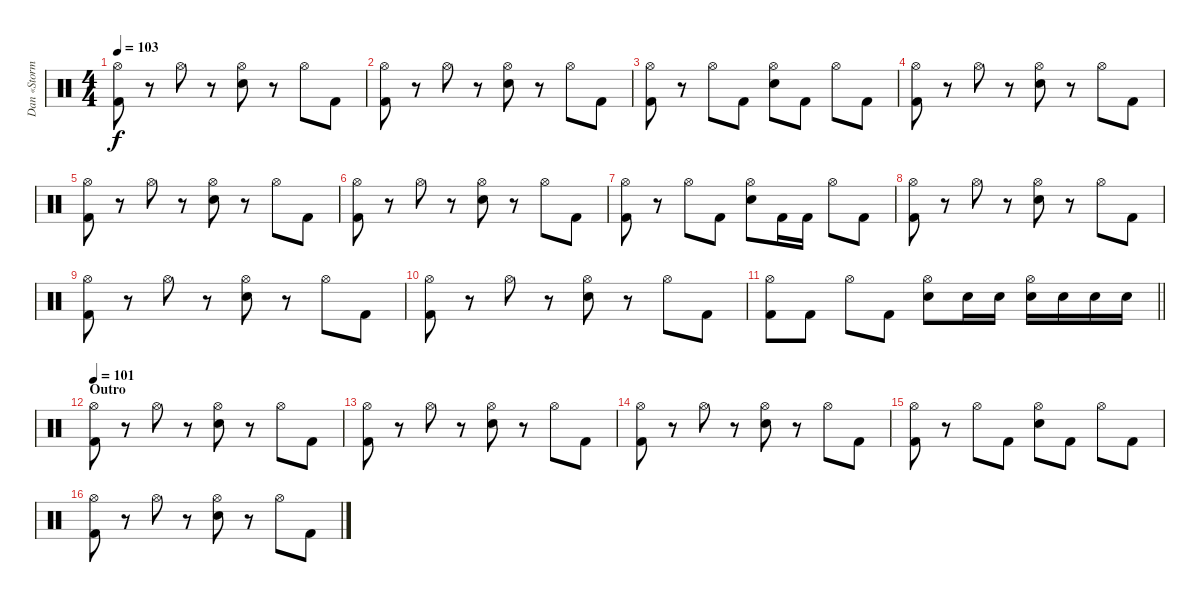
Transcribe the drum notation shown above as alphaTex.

\track ("Dan «Storm» Mullins" "Dan «Storm") {instrument percussion}
\staff {score}
\articulation defaults
\ts (4 4)
\tempo 103
\clef neutral
\ks c
("Hi-Hat (open)" "Kick (hit) 2").8{dy f} r.8 "Hi-Hat (open)".8 r.8 ("Hi-Hat (open)" "Electric Snare (hit)").8 r.8 "Hi-Hat (open)".8 "Kick (hit) 2".8 |
("Hi-Hat (open)" "Kick (hit) 2").8 r.8 "Hi-Hat (open)".8 r.8 ("Hi-Hat (open)" "Electric Snare (hit)").8 r.8 "Hi-Hat (open)".8 "Kick (hit) 2".8 |
("Hi-Hat (open)" "Kick (hit) 2").8 r.8 "Hi-Hat (open)".8 "Kick (hit) 2".8 ("Hi-Hat (open)" "Electric Snare (hit)").8 "Kick (hit) 2".8 "Hi-Hat (open)".8 "Kick (hit) 2".8 |
("Hi-Hat (open)" "Kick (hit) 2").8 r.8 "Hi-Hat (open)".8 r.8 ("Hi-Hat (open)" "Electric Snare (hit)").8 r.8 "Hi-Hat (open)".8 "Kick (hit) 2".8 |
("Hi-Hat (open)" "Kick (hit) 2").8 r.8 "Hi-Hat (open)".8 r.8 ("Hi-Hat (open)" "Electric Snare (hit)").8 r.8 "Hi-Hat (open)".8 "Kick (hit) 2".8 |
("Hi-Hat (open)" "Kick (hit) 2").8 r.8 "Hi-Hat (open)".8 r.8 ("Hi-Hat (open)" "Electric Snare (hit)").8 r.8 "Hi-Hat (open)".8 "Kick (hit) 2".8 |
("Hi-Hat (open)" "Kick (hit) 2").8 r.8 "Hi-Hat (open)".8 "Kick (hit) 2".8 ("Hi-Hat (open)" "Electric Snare (hit)").8 "Kick (hit) 2".16 "Kick (hit) 2".16 "Hi-Hat (open)".8 "Kick (hit) 2".8 |
("Hi-Hat (open)" "Kick (hit) 2").8 r.8 "Hi-Hat (open)".8 r.8 ("Hi-Hat (open)" "Electric Snare (hit)").8 r.8 "Hi-Hat (open)".8 "Kick (hit) 2".8 |
("Hi-Hat (open)" "Kick (hit) 2").8 r.8 "Hi-Hat (open)".8 r.8 ("Hi-Hat (open)" "Electric Snare (hit)").8 r.8 "Hi-Hat (open)".8 "Kick (hit) 2".8 |
("Hi-Hat (open)" "Kick (hit) 2").8 r.8 "Hi-Hat (open)".8 r.8 ("Hi-Hat (open)" "Electric Snare (hit)").8 r.8 "Hi-Hat (open)".8 "Kick (hit) 2".8 |
\barLineRight lightlight
("Hi-Hat (open)" "Kick (hit) 2").8 "Kick (hit) 2".8 "Hi-Hat (open)".8 "Kick (hit) 2".8 ("Hi-Hat (open)" "Electric Snare (hit)").8 "Electric Snare (hit)".16 "Electric Snare (hit)".16 ("Hi-Hat (open)" "Electric Snare (hit)").16 "Electric Snare (hit)".16 "Electric Snare (hit)".16 "Electric Snare (hit)".16 |
\section ("" "Outro")
\tempo 101
("Hi-Hat (open)" "Kick (hit) 2").8 r.8 "Hi-Hat (open)".8 r.8 ("Hi-Hat (open)" "Electric Snare (hit)").8 r.8 "Hi-Hat (open)".8 "Kick (hit) 2".8 |
("Hi-Hat (open)" "Kick (hit) 2").8 r.8 "Hi-Hat (open)".8 r.8 ("Hi-Hat (open)" "Electric Snare (hit)").8 r.8 "Hi-Hat (open)".8 "Kick (hit) 2".8 |
("Hi-Hat (open)" "Kick (hit) 2").8 r.8 "Hi-Hat (open)".8 r.8 ("Hi-Hat (open)" "Electric Snare (hit)").8 r.8 "Hi-Hat (open)".8 "Kick (hit) 2".8 |
("Hi-Hat (open)" "Kick (hit) 2").8 r.8 "Hi-Hat (open)".8 "Kick (hit) 2".8 ("Hi-Hat (open)" "Electric Snare (hit)").8 "Kick (hit) 2".8 "Hi-Hat (open)".8 "Kick (hit) 2".8 |
("Hi-Hat (open)" "Kick (hit) 2").8 r.8 "Hi-Hat (open)".8 r.8 ("Hi-Hat (open)" "Electric Snare (hit)").8 r.8 "Hi-Hat (open)".8 "Kick (hit) 2".8
